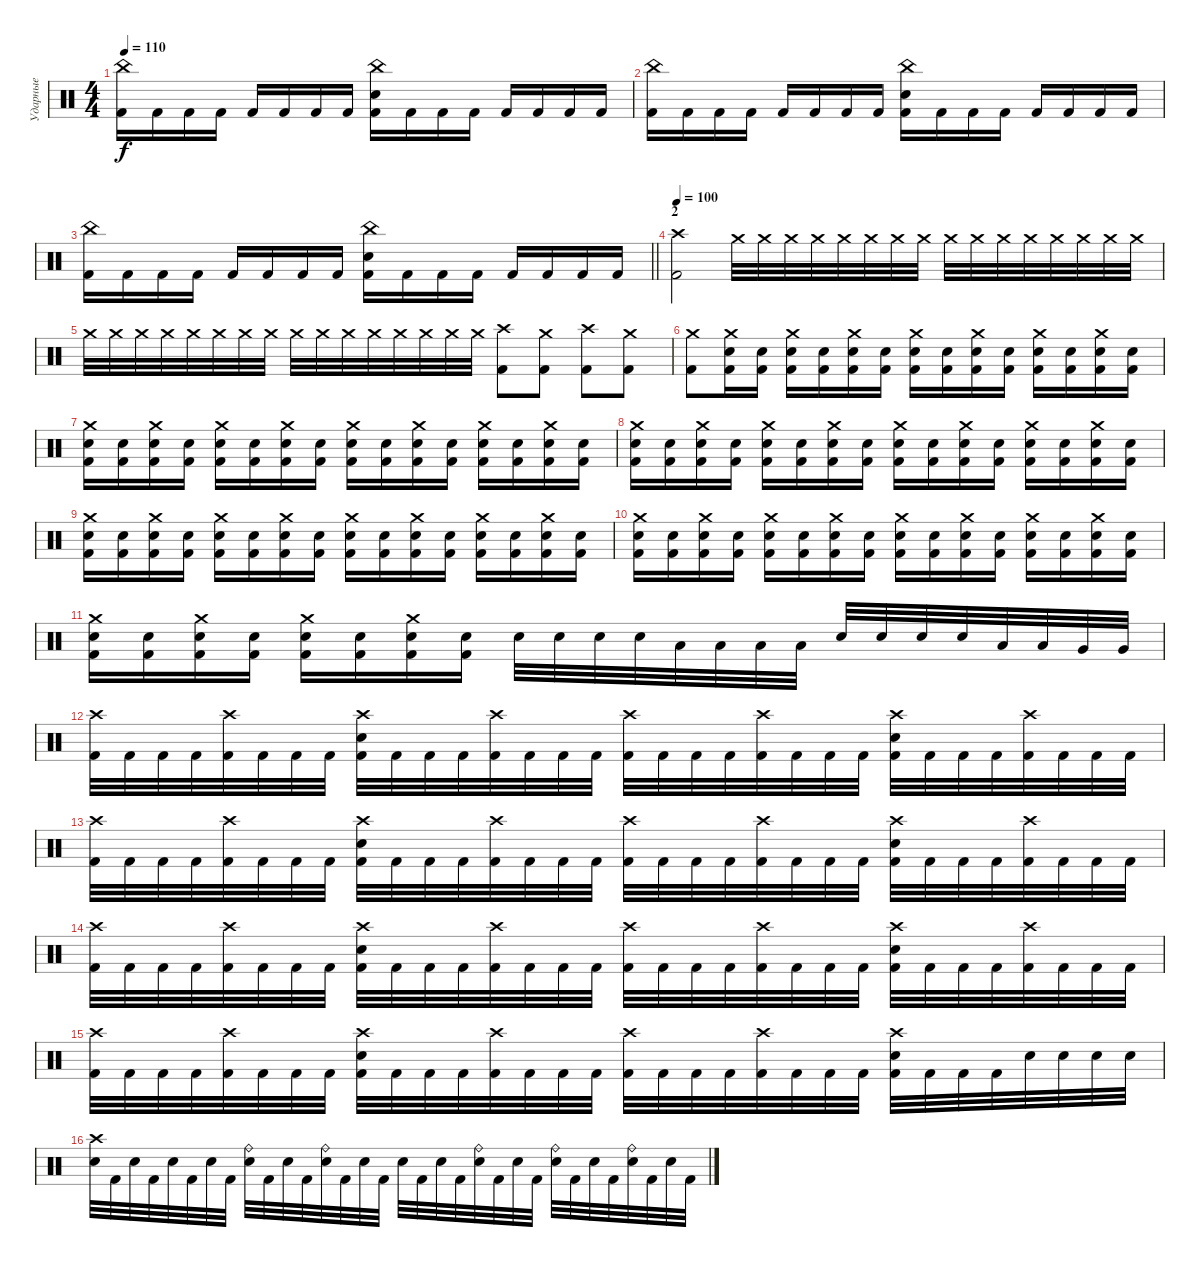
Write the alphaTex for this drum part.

\track ("Ударные" "Ударные") {instrument percussion}
\staff
\articulation defaults
\ts (4 4)
\tempo 110
\clef neutral
\ks c
("China (hit)" "Kick (hit) 2").16{dy f} "Kick (hit) 2".16 "Kick (hit) 2".16 "Kick (hit) 2".16 "Kick (hit) 2".16 "Kick (hit) 2".16 "Kick (hit) 2".16 "Kick (hit) 2".16 ("China (hit)" "Electric Snare (hit)" "Kick (hit) 2").16 "Kick (hit) 2".16 "Kick (hit) 2".16 "Kick (hit) 2".16 "Kick (hit) 2".16 "Kick (hit) 2".16 "Kick (hit) 2".16 "Kick (hit) 2".16 |
("China (hit)" "Kick (hit) 2").16 "Kick (hit) 2".16 "Kick (hit) 2".16 "Kick (hit) 2".16 "Kick (hit) 2".16 "Kick (hit) 2".16 "Kick (hit) 2".16 "Kick (hit) 2".16 ("China (hit)" "Electric Snare (hit)" "Kick (hit) 2").16 "Kick (hit) 2".16 "Kick (hit) 2".16 "Kick (hit) 2".16 "Kick (hit) 2".16 "Kick (hit) 2".16 "Kick (hit) 2".16 "Kick (hit) 2".16 |
\barLineRight lightlight
("China (hit)" "Kick (hit) 2").16 "Kick (hit) 2".16 "Kick (hit) 2".16 "Kick (hit) 2".16 "Kick (hit) 2".16 "Kick (hit) 2".16 "Kick (hit) 2".16 "Kick (hit) 2".16 ("China (hit)" "Electric Snare (hit)" "Kick (hit) 2").16 "Kick (hit) 2".16 "Kick (hit) 2".16 "Kick (hit) 2".16 "Kick (hit) 2".16 "Kick (hit) 2".16 "Kick (hit) 2".16 "Kick (hit) 2".16 |
\section ("" "2")
\tempo 100
("Crash high (hit)" "Kick (hit) 2").2{volume 6} "Crash medium (hit)".32{volume 13} "Crash medium (hit)".32 "Crash medium (hit)".32 "Crash medium (hit)".32 "Crash medium (hit)".32 "Crash medium (hit)".32 "Crash medium (hit)".32 "Crash medium (hit)".32 "Crash medium (hit)".32 "Crash medium (hit)".32 "Crash medium (hit)".32 "Crash medium (hit)".32 "Crash medium (hit)".32 "Crash medium (hit)".32 "Crash medium (hit)".32 "Crash medium (hit)".32 |
"Crash medium (hit)".32 "Crash medium (hit)".32 "Crash medium (hit)".32 "Crash medium (hit)".32 "Crash medium (hit)".32 "Crash medium (hit)".32 "Crash medium (hit)".32 "Crash medium (hit)".32 "Crash medium (hit)".32 "Crash medium (hit)".32 "Crash medium (hit)".32 "Crash medium (hit)".32 "Crash medium (hit)".32 "Crash medium (hit)".32 "Crash medium (hit)".32 "Crash medium (hit)".32 ("Crash high (hit)" "Kick (hit) 2").8 ("Crash medium (hit)" "Kick (hit) 2").8 ("Crash high (hit)" "Kick (hit) 2").8 ("Crash medium (hit)" "Kick (hit) 2").8 |
("Crash medium (hit)" "Kick (hit) 2").8 ("Crash medium (hit)" "Electric Snare (hit)" "Kick (hit) 2").16 ("Electric Snare (hit)" "Kick (hit) 2").16 ("Crash medium (hit)" "Electric Snare (hit)" "Kick (hit) 2").16 ("Electric Snare (hit)" "Kick (hit) 2").16 ("Crash medium (hit)" "Electric Snare (hit)" "Kick (hit) 2").16 ("Electric Snare (hit)" "Kick (hit) 2").16 ("Crash medium (hit)" "Electric Snare (hit)" "Kick (hit) 2").16 ("Electric Snare (hit)" "Kick (hit) 2").16 ("Crash medium (hit)" "Electric Snare (hit)" "Kick (hit) 2").16 ("Electric Snare (hit)" "Kick (hit) 2").16 ("Crash medium (hit)" "Electric Snare (hit)" "Kick (hit) 2").16 ("Electric Snare (hit)" "Kick (hit) 2").16 ("Crash medium (hit)" "Electric Snare (hit)" "Kick (hit) 2").16 ("Electric Snare (hit)" "Kick (hit) 2").16 |
("Crash medium (hit)" "Electric Snare (hit)" "Kick (hit) 2").16 ("Electric Snare (hit)" "Kick (hit) 2").16 ("Crash medium (hit)" "Electric Snare (hit)" "Kick (hit) 2").16 ("Electric Snare (hit)" "Kick (hit) 2").16 ("Crash medium (hit)" "Electric Snare (hit)" "Kick (hit) 2").16 ("Electric Snare (hit)" "Kick (hit) 2").16 ("Crash medium (hit)" "Electric Snare (hit)" "Kick (hit) 2").16 ("Electric Snare (hit)" "Kick (hit) 2").16 ("Crash medium (hit)" "Electric Snare (hit)" "Kick (hit) 2").16 ("Electric Snare (hit)" "Kick (hit) 2").16 ("Crash medium (hit)" "Electric Snare (hit)" "Kick (hit) 2").16 ("Electric Snare (hit)" "Kick (hit) 2").16 ("Crash medium (hit)" "Electric Snare (hit)" "Kick (hit) 2").16 ("Electric Snare (hit)" "Kick (hit) 2").16 ("Crash medium (hit)" "Electric Snare (hit)" "Kick (hit) 2").16 ("Electric Snare (hit)" "Kick (hit) 2").16 |
("Crash medium (hit)" "Electric Snare (hit)" "Kick (hit) 2").16 ("Electric Snare (hit)" "Kick (hit) 2").16 ("Crash medium (hit)" "Electric Snare (hit)" "Kick (hit) 2").16 ("Electric Snare (hit)" "Kick (hit) 2").16 ("Crash medium (hit)" "Electric Snare (hit)" "Kick (hit) 2").16 ("Electric Snare (hit)" "Kick (hit) 2").16 ("Crash medium (hit)" "Electric Snare (hit)" "Kick (hit) 2").16 ("Electric Snare (hit)" "Kick (hit) 2").16 ("Crash medium (hit)" "Electric Snare (hit)" "Kick (hit) 2").16 ("Electric Snare (hit)" "Kick (hit) 2").16 ("Crash medium (hit)" "Electric Snare (hit)" "Kick (hit) 2").16 ("Electric Snare (hit)" "Kick (hit) 2").16 ("Crash medium (hit)" "Electric Snare (hit)" "Kick (hit) 2").16 ("Electric Snare (hit)" "Kick (hit) 2").16 ("Crash medium (hit)" "Electric Snare (hit)" "Kick (hit) 2").16 ("Electric Snare (hit)" "Kick (hit) 2").16 |
("Crash medium (hit)" "Electric Snare (hit)" "Kick (hit) 2").16 ("Electric Snare (hit)" "Kick (hit) 2").16 ("Crash medium (hit)" "Electric Snare (hit)" "Kick (hit) 2").16 ("Electric Snare (hit)" "Kick (hit) 2").16 ("Crash medium (hit)" "Electric Snare (hit)" "Kick (hit) 2").16 ("Electric Snare (hit)" "Kick (hit) 2").16 ("Crash medium (hit)" "Electric Snare (hit)" "Kick (hit) 2").16 ("Electric Snare (hit)" "Kick (hit) 2").16 ("Crash medium (hit)" "Electric Snare (hit)" "Kick (hit) 2").16 ("Electric Snare (hit)" "Kick (hit) 2").16 ("Crash medium (hit)" "Electric Snare (hit)" "Kick (hit) 2").16 ("Electric Snare (hit)" "Kick (hit) 2").16 ("Crash medium (hit)" "Electric Snare (hit)" "Kick (hit) 2").16 ("Electric Snare (hit)" "Kick (hit) 2").16 ("Crash medium (hit)" "Electric Snare (hit)" "Kick (hit) 2").16 ("Electric Snare (hit)" "Kick (hit) 2").16 |
("Crash medium (hit)" "Electric Snare (hit)" "Kick (hit) 2").16 ("Electric Snare (hit)" "Kick (hit) 2").16 ("Crash medium (hit)" "Electric Snare (hit)" "Kick (hit) 2").16 ("Electric Snare (hit)" "Kick (hit) 2").16 ("Crash medium (hit)" "Electric Snare (hit)" "Kick (hit) 2").16 ("Electric Snare (hit)" "Kick (hit) 2").16 ("Crash medium (hit)" "Electric Snare (hit)" "Kick (hit) 2").16 ("Electric Snare (hit)" "Kick (hit) 2").16 ("Crash medium (hit)" "Electric Snare (hit)" "Kick (hit) 2").16 ("Electric Snare (hit)" "Kick (hit) 2").16 ("Crash medium (hit)" "Electric Snare (hit)" "Kick (hit) 2").16 ("Electric Snare (hit)" "Kick (hit) 2").16 ("Crash medium (hit)" "Electric Snare (hit)" "Kick (hit) 2").16 ("Electric Snare (hit)" "Kick (hit) 2").16 ("Crash medium (hit)" "Electric Snare (hit)" "Kick (hit) 2").16 ("Electric Snare (hit)" "Kick (hit) 2").16 |
("Crash medium (hit)" "Electric Snare (hit)" "Kick (hit) 2").16 ("Electric Snare (hit)" "Kick (hit) 2").16 ("Crash medium (hit)" "Electric Snare (hit)" "Kick (hit) 2").16 ("Electric Snare (hit)" "Kick (hit) 2").16 ("Crash medium (hit)" "Electric Snare (hit)" "Kick (hit) 2").16 ("Electric Snare (hit)" "Kick (hit) 2").16 ("Crash medium (hit)" "Electric Snare (hit)" "Kick (hit) 2").16 ("Electric Snare (hit)" "Kick (hit) 2").16 "Electric Snare (hit)".32 "Electric Snare (hit)".32 "Electric Snare (hit)".32 "Electric Snare (hit)".32 "Low Tom (hit)".32 "Low Tom (hit)".32 "Low Tom (hit)".32 "Low Tom (hit)".32 "Electric Snare (hit)".32 "Electric Snare (hit)".32 "Electric Snare (hit)".32 "Electric Snare (hit)".32 "Low Tom (hit)".32 "Low Tom (hit)".32 "Very Low Tom (hit)".32 "Very Low Tom (hit)".32 |
("Crash high (hit)" "Kick (hit) 2").32 "Kick (hit) 2".32 "Kick (hit) 2".32 "Kick (hit) 2".32 ("Crash high (hit)" "Kick (hit) 2").32 "Kick (hit) 2".32 "Kick (hit) 2".32 "Kick (hit) 2".32 ("Crash high (hit)" "Electric Snare (hit)" "Kick (hit) 2").32 "Kick (hit) 2".32 "Kick (hit) 2".32 "Kick (hit) 2".32 ("Crash high (hit)" "Kick (hit) 2").32 "Kick (hit) 2".32 "Kick (hit) 2".32 "Kick (hit) 2".32 ("Crash high (hit)" "Kick (hit) 2").32 "Kick (hit) 2".32 "Kick (hit) 2".32 "Kick (hit) 2".32 ("Crash high (hit)" "Kick (hit) 2").32 "Kick (hit) 2".32 "Kick (hit) 2".32 "Kick (hit) 2".32 ("Crash high (hit)" "Electric Snare (hit)" "Kick (hit) 2").32 "Kick (hit) 2".32 "Kick (hit) 2".32 "Kick (hit) 2".32 ("Crash high (hit)" "Kick (hit) 2").32 "Kick (hit) 2".32 "Kick (hit) 2".32 "Kick (hit) 2".32 |
("Crash high (hit)" "Kick (hit) 2").32 "Kick (hit) 2".32 "Kick (hit) 2".32 "Kick (hit) 2".32 ("Crash high (hit)" "Kick (hit) 2").32 "Kick (hit) 2".32 "Kick (hit) 2".32 "Kick (hit) 2".32 ("Crash high (hit)" "Electric Snare (hit)" "Kick (hit) 2").32 "Kick (hit) 2".32 "Kick (hit) 2".32 "Kick (hit) 2".32 ("Crash high (hit)" "Kick (hit) 2").32 "Kick (hit) 2".32 "Kick (hit) 2".32 "Kick (hit) 2".32 ("Crash high (hit)" "Kick (hit) 2").32 "Kick (hit) 2".32 "Kick (hit) 2".32 "Kick (hit) 2".32 ("Crash high (hit)" "Kick (hit) 2").32 "Kick (hit) 2".32 "Kick (hit) 2".32 "Kick (hit) 2".32 ("Crash high (hit)" "Electric Snare (hit)" "Kick (hit) 2").32 "Kick (hit) 2".32 "Kick (hit) 2".32 "Kick (hit) 2".32 ("Crash high (hit)" "Kick (hit) 2").32 "Kick (hit) 2".32 "Kick (hit) 2".32 "Kick (hit) 2".32 |
("Crash high (hit)" "Kick (hit) 2").32 "Kick (hit) 2".32 "Kick (hit) 2".32 "Kick (hit) 2".32 ("Crash high (hit)" "Kick (hit) 2").32 "Kick (hit) 2".32 "Kick (hit) 2".32 "Kick (hit) 2".32 ("Crash high (hit)" "Electric Snare (hit)" "Kick (hit) 2").32 "Kick (hit) 2".32 "Kick (hit) 2".32 "Kick (hit) 2".32 ("Crash high (hit)" "Kick (hit) 2").32 "Kick (hit) 2".32 "Kick (hit) 2".32 "Kick (hit) 2".32 ("Crash high (hit)" "Kick (hit) 2").32 "Kick (hit) 2".32 "Kick (hit) 2".32 "Kick (hit) 2".32 ("Crash high (hit)" "Kick (hit) 2").32 "Kick (hit) 2".32 "Kick (hit) 2".32 "Kick (hit) 2".32 ("Crash high (hit)" "Electric Snare (hit)" "Kick (hit) 2").32 "Kick (hit) 2".32 "Kick (hit) 2".32 "Kick (hit) 2".32 ("Crash high (hit)" "Kick (hit) 2").32 "Kick (hit) 2".32 "Kick (hit) 2".32 "Kick (hit) 2".32 |
("Crash high (hit)" "Kick (hit) 2").32 "Kick (hit) 2".32 "Kick (hit) 2".32 "Kick (hit) 2".32 ("Crash high (hit)" "Kick (hit) 2").32 "Kick (hit) 2".32 "Kick (hit) 2".32 "Kick (hit) 2".32 ("Crash high (hit)" "Electric Snare (hit)" "Kick (hit) 2").32 "Kick (hit) 2".32 "Kick (hit) 2".32 "Kick (hit) 2".32 ("Crash high (hit)" "Kick (hit) 2").32 "Kick (hit) 2".32 "Kick (hit) 2".32 "Kick (hit) 2".32 ("Crash high (hit)" "Kick (hit) 2").32 "Kick (hit) 2".32 "Kick (hit) 2".32 "Kick (hit) 2".32 ("Crash high (hit)" "Kick (hit) 2").32 "Kick (hit) 2".32 "Kick (hit) 2".32 "Kick (hit) 2".32 ("Crash high (hit)" "Electric Snare (hit)" "Kick (hit) 2").32 "Kick (hit) 2".32 "Kick (hit) 2".32 "Kick (hit) 2".32 "Electric Snare (hit)".32 "Electric Snare (hit)".32 "Electric Snare (hit)".32 "Electric Snare (hit)".32 |
("Crash high (hit)" "Electric Snare (hit)").32 "Kick (hit) 2".32 "Electric Snare (hit)".32 "Kick (hit) 2".32 "Electric Snare (hit)".32 "Kick (hit) 2".32 "Electric Snare (hit)".32 "Kick (hit) 2".32 ("Ride (bell)" "Electric Snare (hit)").32 "Kick (hit) 2".32 "Electric Snare (hit)".32 "Kick (hit) 2".32 ("Ride (bell)" "Electric Snare (hit)").32 "Kick (hit) 2".32 "Electric Snare (hit)".32 "Kick (hit) 2".32 "Electric Snare (hit)".32 "Kick (hit) 2".32 "Electric Snare (hit)".32 "Kick (hit) 2".32 ("Ride (bell)" "Electric Snare (hit)").32 "Kick (hit) 2".32 "Electric Snare (hit)".32 "Kick (hit) 2".32 ("Ride (bell)" "Electric Snare (hit)").32 "Kick (hit) 2".32 "Electric Snare (hit)".32 "Kick (hit) 2".32 ("Ride (bell)" "Electric Snare (hit)").32 "Kick (hit) 2".32 "Electric Snare (hit)".32 "Kick (hit) 2".32
